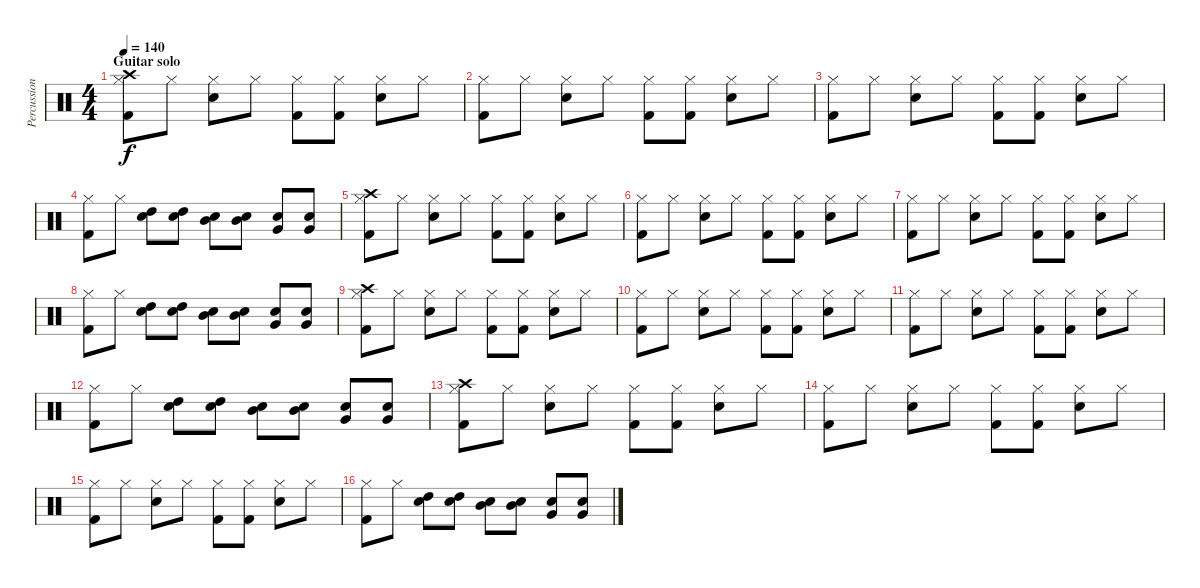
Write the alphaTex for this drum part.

\track ("Percussion" "Percussion") {instrument percussion}
\staff {score}
\articulation defaults
\ts (4 4)
\section ("" "Guitar solo")
\tempo 140
\clef neutral
\ks c
("Kick (hit) 2" "Hi-Hat (closed)" "Crash high (hit)").8{dy f} "Hi-Hat (closed)".8 ("Electric Snare (hit)" "Hi-Hat (closed)").8 "Hi-Hat (closed)".8 ("Kick (hit) 2" "Hi-Hat (closed)").8 ("Kick (hit) 2" "Hi-Hat (closed)").8 ("Electric Snare (hit)" "Hi-Hat (closed)").8 "Hi-Hat (closed)".8 |
("Kick (hit) 2" "Hi-Hat (closed)").8 "Hi-Hat (closed)".8 ("Electric Snare (hit)" "Hi-Hat (closed)").8 "Hi-Hat (closed)".8 ("Kick (hit) 2" "Hi-Hat (closed)").8 ("Kick (hit) 2" "Hi-Hat (closed)").8 ("Electric Snare (hit)" "Hi-Hat (closed)").8 "Hi-Hat (closed)".8 |
("Kick (hit) 2" "Hi-Hat (closed)").8 "Hi-Hat (closed)".8 ("Electric Snare (hit)" "Hi-Hat (closed)").8 "Hi-Hat (closed)".8 ("Kick (hit) 2" "Hi-Hat (closed)").8 ("Kick (hit) 2" "Hi-Hat (closed)").8 ("Electric Snare (hit)" "Hi-Hat (closed)").8 "Hi-Hat (closed)".8 |
("Kick (hit) 2" "Hi-Hat (closed)").8 "Hi-Hat (closed)".8 ("Electric Snare (hit)" "High Tom (hit)").8 ("Electric Snare (hit)" "High Tom (hit)").8 ("Electric Snare (hit)" "Mid Tom (hit)").8 ("Electric Snare (hit)" "Mid Tom (hit)").8 ("Electric Snare (hit)" "Very Low Tom (hit)").8 ("Electric Snare (hit)" "Very Low Tom (hit)").8 |
("Kick (hit) 2" "Hi-Hat (closed)" "Crash high (hit)").8 "Hi-Hat (closed)".8 ("Electric Snare (hit)" "Hi-Hat (closed)").8 "Hi-Hat (closed)".8 ("Kick (hit) 2" "Hi-Hat (closed)").8 ("Kick (hit) 2" "Hi-Hat (closed)").8 ("Electric Snare (hit)" "Hi-Hat (closed)").8 "Hi-Hat (closed)".8 |
("Kick (hit) 2" "Hi-Hat (closed)").8 "Hi-Hat (closed)".8 ("Electric Snare (hit)" "Hi-Hat (closed)").8 "Hi-Hat (closed)".8 ("Kick (hit) 2" "Hi-Hat (closed)").8 ("Kick (hit) 2" "Hi-Hat (closed)").8 ("Electric Snare (hit)" "Hi-Hat (closed)").8 "Hi-Hat (closed)".8 |
("Kick (hit) 2" "Hi-Hat (closed)").8 "Hi-Hat (closed)".8 ("Electric Snare (hit)" "Hi-Hat (closed)").8 "Hi-Hat (closed)".8 ("Kick (hit) 2" "Hi-Hat (closed)").8 ("Kick (hit) 2" "Hi-Hat (closed)").8 ("Electric Snare (hit)" "Hi-Hat (closed)").8 "Hi-Hat (closed)".8 |
("Kick (hit) 2" "Hi-Hat (closed)").8 "Hi-Hat (closed)".8 ("Electric Snare (hit)" "High Tom (hit)").8 ("Electric Snare (hit)" "High Tom (hit)").8 ("Electric Snare (hit)" "Mid Tom (hit)").8 ("Electric Snare (hit)" "Mid Tom (hit)").8 ("Electric Snare (hit)" "Very Low Tom (hit)").8 ("Electric Snare (hit)" "Very Low Tom (hit)").8 |
("Kick (hit) 2" "Hi-Hat (closed)" "Crash high (hit)").8 "Hi-Hat (closed)".8 ("Electric Snare (hit)" "Hi-Hat (closed)").8 "Hi-Hat (closed)".8 ("Kick (hit) 2" "Hi-Hat (closed)").8 ("Kick (hit) 2" "Hi-Hat (closed)").8 ("Electric Snare (hit)" "Hi-Hat (closed)").8 "Hi-Hat (closed)".8 |
("Kick (hit) 2" "Hi-Hat (closed)").8 "Hi-Hat (closed)".8 ("Electric Snare (hit)" "Hi-Hat (closed)").8 "Hi-Hat (closed)".8 ("Kick (hit) 2" "Hi-Hat (closed)").8 ("Kick (hit) 2" "Hi-Hat (closed)").8 ("Electric Snare (hit)" "Hi-Hat (closed)").8 "Hi-Hat (closed)".8 |
("Kick (hit) 2" "Hi-Hat (closed)").8 "Hi-Hat (closed)".8 ("Electric Snare (hit)" "Hi-Hat (closed)").8 "Hi-Hat (closed)".8 ("Kick (hit) 2" "Hi-Hat (closed)").8 ("Kick (hit) 2" "Hi-Hat (closed)").8 ("Electric Snare (hit)" "Hi-Hat (closed)").8 "Hi-Hat (closed)".8 |
("Kick (hit) 2" "Hi-Hat (closed)").8 "Hi-Hat (closed)".8 ("Electric Snare (hit)" "High Tom (hit)").8 ("Electric Snare (hit)" "High Tom (hit)").8 ("Electric Snare (hit)" "Mid Tom (hit)").8 ("Electric Snare (hit)" "Mid Tom (hit)").8 ("Electric Snare (hit)" "Very Low Tom (hit)").8 ("Electric Snare (hit)" "Very Low Tom (hit)").8 |
("Kick (hit) 2" "Hi-Hat (closed)" "Crash high (hit)").8 "Hi-Hat (closed)".8 ("Electric Snare (hit)" "Hi-Hat (closed)").8 "Hi-Hat (closed)".8 ("Kick (hit) 2" "Hi-Hat (closed)").8 ("Kick (hit) 2" "Hi-Hat (closed)").8 ("Electric Snare (hit)" "Hi-Hat (closed)").8 "Hi-Hat (closed)".8 |
("Kick (hit) 2" "Hi-Hat (closed)").8 "Hi-Hat (closed)".8 ("Electric Snare (hit)" "Hi-Hat (closed)").8 "Hi-Hat (closed)".8 ("Kick (hit) 2" "Hi-Hat (closed)").8 ("Kick (hit) 2" "Hi-Hat (closed)").8 ("Electric Snare (hit)" "Hi-Hat (closed)").8 "Hi-Hat (closed)".8 |
("Kick (hit) 2" "Hi-Hat (closed)").8 "Hi-Hat (closed)".8 ("Electric Snare (hit)" "Hi-Hat (closed)").8 "Hi-Hat (closed)".8 ("Kick (hit) 2" "Hi-Hat (closed)").8 ("Kick (hit) 2" "Hi-Hat (closed)").8 ("Electric Snare (hit)" "Hi-Hat (closed)").8 "Hi-Hat (closed)".8 |
("Kick (hit) 2" "Hi-Hat (closed)").8 "Hi-Hat (closed)".8 ("Electric Snare (hit)" "High Tom (hit)").8 ("Electric Snare (hit)" "High Tom (hit)").8 ("Electric Snare (hit)" "Mid Tom (hit)").8 ("Electric Snare (hit)" "Mid Tom (hit)").8 ("Electric Snare (hit)" "Very Low Tom (hit)").8 ("Electric Snare (hit)" "Very Low Tom (hit)").8
